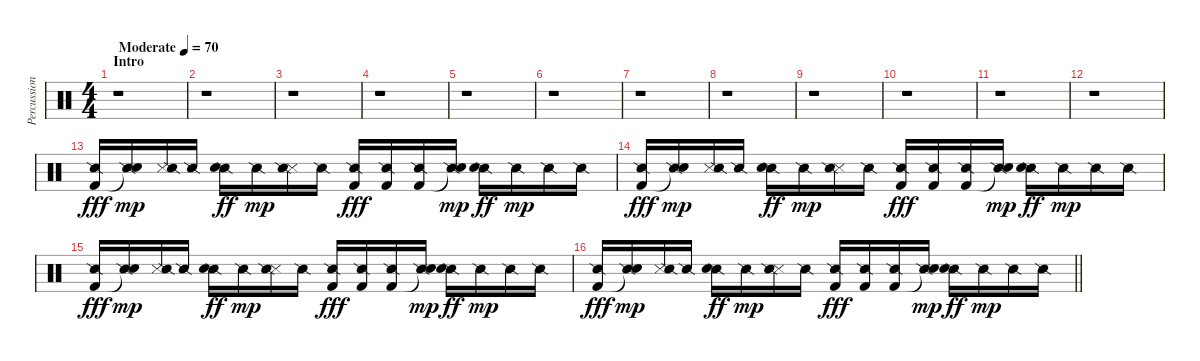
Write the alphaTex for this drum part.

\track ("Percussion" "Percussion") {instrument percussion}
\staff {score}
\articulation defaults
\ts (4 4)
\section ("" "Intro")
\tempo (70 "Moderate")
\clef neutral
\ks c
r.1{dy fff} |
r.1 |
r.1 |
r.1 |
r.1 |
r.1 |
r.1 |
r.1 |
r.1 |
r.1 |
r.1 |
r.1 |
("Snare (side stick) 2" "Kick (hit) 2").16 ("Snare (side stick) 2" "Snare (hit)"{t}).16{dy mp} ("Snare (side stick) 3" "Snare (side stick) 2").16 "Snare (side stick) 2".16 ("Snare (side stick) 2" "Electric Snare (hit)").16{dy ff} "Snare (side stick) 2".16{dy mp} ("Snare (side stick) 3" "Snare (side stick) 2").16 "Snare (side stick) 2".16 ("Snare (side stick) 2" "Kick (hit) 2").16{dy fff} ("Snare (side stick) 2" "Kick (hit) 2").16 ("Snare (side stick) 2" "Kick (hit) 2").16 ("Snare (side stick) 2" "Snare (hit)"{t}).16{dy mp} ("Snare (side stick) 2" "Electric Snare (hit)").16{dy ff} "Snare (side stick) 2".16{dy mp} "Snare (side stick) 2".16 "Snare (side stick) 2".16 |
("Snare (side stick) 2" "Kick (hit) 2").16{dy fff} ("Snare (side stick) 2" "Snare (hit)"{t}).16{dy mp} ("Snare (side stick) 3" "Snare (side stick) 2").16 "Snare (side stick) 2".16 ("Snare (side stick) 2" "Electric Snare (hit)").16{dy ff} "Snare (side stick) 2".16{dy mp} ("Snare (side stick) 3" "Snare (side stick) 2").16 "Snare (side stick) 2".16 ("Snare (side stick) 2" "Kick (hit) 2").16{dy fff} ("Snare (side stick) 2" "Kick (hit) 2").16 ("Snare (side stick) 2" "Kick (hit) 2").16 ("Snare (side stick) 2" "Snare (hit)"{t}).16{dy mp} ("Snare (side stick) 2" "Electric Snare (hit)").16{dy ff} "Snare (side stick) 2".16{dy mp} "Snare (side stick) 2".16 "Snare (side stick) 2".16 |
("Snare (side stick) 2" "Kick (hit) 2").16{dy fff} ("Snare (side stick) 2" "Snare (hit)"{t}).16{dy mp} ("Snare (side stick) 3" "Snare (side stick) 2").16 "Snare (side stick) 2".16 ("Snare (side stick) 2" "Electric Snare (hit)").16{dy ff} "Snare (side stick) 2".16{dy mp} ("Snare (side stick) 3" "Snare (side stick) 2").16 "Snare (side stick) 2".16 ("Snare (side stick) 2" "Kick (hit) 2").16{dy fff} ("Snare (side stick) 2" "Kick (hit) 2").16 ("Snare (side stick) 2" "Kick (hit) 2").16 ("Snare (side stick) 2" "Snare (hit)"{t}).16{dy mp} ("Snare (side stick) 2" "Electric Snare (hit)").16{dy ff} "Snare (side stick) 2".16{dy mp} "Snare (side stick) 2".16 "Snare (side stick) 2".16 |
\barLineRight lightlight
("Snare (side stick) 2" "Kick (hit) 2").16{dy fff} ("Snare (side stick) 2" "Snare (hit)"{t}).16{dy mp} ("Snare (side stick) 3" "Snare (side stick) 2").16 "Snare (side stick) 2".16 ("Snare (side stick) 2" "Electric Snare (hit)").16{dy ff} "Snare (side stick) 2".16{dy mp} ("Snare (side stick) 3" "Snare (side stick) 2").16 "Snare (side stick) 2".16 ("Snare (side stick) 2" "Kick (hit) 2").16{dy fff} ("Snare (side stick) 2" "Kick (hit) 2").16 ("Snare (side stick) 2" "Kick (hit) 2").16 ("Snare (side stick) 2" "Snare (hit)"{t}).16{dy mp} ("Snare (side stick) 2" "Electric Snare (hit)").16{dy ff} "Snare (side stick) 2".16{dy mp} "Snare (side stick) 2".16 "Snare (side stick) 2".16
